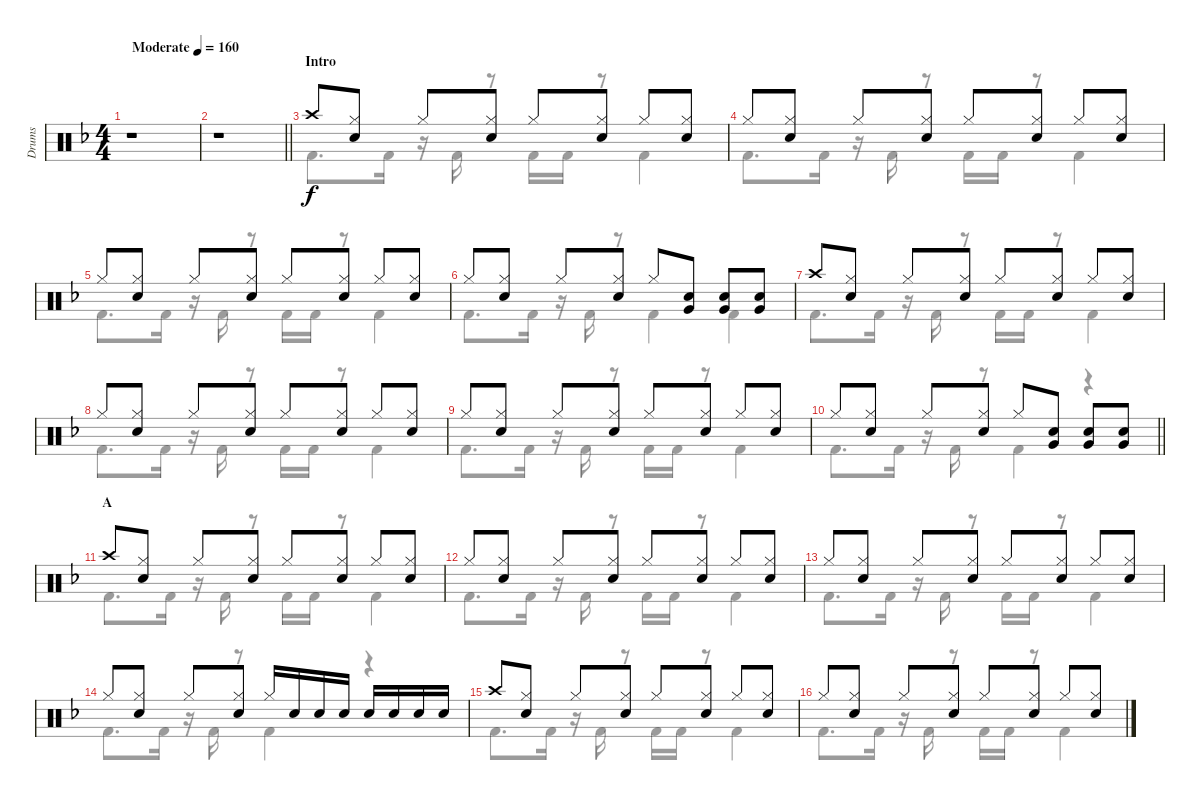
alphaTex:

\track ("Drums" "Drums") {instrument percussion}
\staff {score}
\articulation defaults
\voice
\ts (4 4)
\tempo (160 "Moderate")
\clef neutral
\ks f
r.1{dy f} |
\barLineRight lightlight
r.1 |
\section ("" "Intro")
"Crash high (hit)".8 ("Hi-Hat (closed)" "Snare (hit) 2").8 "Hi-Hat (closed)".8 ("Hi-Hat (closed)" "Snare (hit) 2").8 "Hi-Hat (closed)".8 ("Hi-Hat (closed)" "Snare (hit) 2").8 "Hi-Hat (closed)".8 ("Hi-Hat (closed)" "Snare (hit) 2").8 |
"Hi-Hat (closed)".8 ("Hi-Hat (closed)" "Snare (hit) 2").8 "Hi-Hat (closed)".8 ("Hi-Hat (closed)" "Snare (hit) 2").8 "Hi-Hat (closed)".8 ("Hi-Hat (closed)" "Snare (hit) 2").8 "Hi-Hat (closed)".8 ("Hi-Hat (closed)" "Snare (hit) 2").8 |
"Hi-Hat (closed)".8 ("Hi-Hat (closed)" "Snare (hit) 2").8 "Hi-Hat (closed)".8 ("Hi-Hat (closed)" "Snare (hit) 2").8 "Hi-Hat (closed)".8 ("Hi-Hat (closed)" "Snare (hit) 2").8 "Hi-Hat (closed)".8 ("Hi-Hat (closed)" "Snare (hit) 2").8 |
"Hi-Hat (closed)".8 ("Hi-Hat (closed)" "Snare (hit) 2").8 "Hi-Hat (closed)".8 ("Hi-Hat (closed)" "Snare (hit) 2").8 "Hi-Hat (closed)".8 ("Snare (hit) 2" "Very Low Tom (hit)").8 ("Snare (hit) 2" "Very Low Tom (hit)").8 ("Snare (hit) 2" "Very Low Tom (hit)").8 |
"Crash high (hit)".8 ("Hi-Hat (closed)" "Snare (hit) 2").8 "Hi-Hat (closed)".8 ("Hi-Hat (closed)" "Snare (hit) 2").8 "Hi-Hat (closed)".8 ("Hi-Hat (closed)" "Snare (hit) 2").8 "Hi-Hat (closed)".8 ("Hi-Hat (closed)" "Snare (hit) 2").8 |
"Hi-Hat (closed)".8 ("Hi-Hat (closed)" "Snare (hit) 2").8 "Hi-Hat (closed)".8 ("Hi-Hat (closed)" "Snare (hit) 2").8 "Hi-Hat (closed)".8 ("Hi-Hat (closed)" "Snare (hit) 2").8 "Hi-Hat (closed)".8 ("Hi-Hat (closed)" "Snare (hit) 2").8 |
"Hi-Hat (closed)".8 ("Hi-Hat (closed)" "Snare (hit) 2").8 "Hi-Hat (closed)".8 ("Hi-Hat (closed)" "Snare (hit) 2").8 "Hi-Hat (closed)".8 ("Hi-Hat (closed)" "Snare (hit) 2").8 "Hi-Hat (closed)".8 ("Hi-Hat (closed)" "Snare (hit) 2").8 |
\barLineRight lightlight "Hi-Hat (closed)".8
("Hi-Hat (closed)" "Snare (hit) 2").8 "Hi-Hat (closed)".8 ("Hi-Hat (closed)" "Snare (hit) 2").8 "Hi-Hat (closed)".8 ("Snare (hit) 2" "Very Low Tom (hit)").8 ("Snare (hit) 2" "Very Low Tom (hit)").8 ("Snare (hit) 2" "Very Low Tom (hit)").8 |
\section ("" "A")
"Crash high (hit)".8 ("Hi-Hat (closed)" "Snare (hit) 2").8 "Hi-Hat (closed)".8 ("Hi-Hat (closed)" "Snare (hit) 2").8 "Hi-Hat (closed)".8 ("Hi-Hat (closed)" "Snare (hit) 2").8 "Hi-Hat (closed)".8 ("Hi-Hat (closed)" "Snare (hit) 2").8 |
"Hi-Hat (closed)".8 ("Hi-Hat (closed)" "Snare (hit) 2").8 "Hi-Hat (closed)".8 ("Hi-Hat (closed)" "Snare (hit) 2").8 "Hi-Hat (closed)".8 ("Hi-Hat (closed)" "Snare (hit) 2").8 "Hi-Hat (closed)".8 ("Hi-Hat (closed)" "Snare (hit) 2").8 |
"Hi-Hat (closed)".8 ("Hi-Hat (closed)" "Snare (hit) 2").8 "Hi-Hat (closed)".8 ("Hi-Hat (closed)" "Snare (hit) 2").8 "Hi-Hat (closed)".8 ("Hi-Hat (closed)" "Snare (hit) 2").8 "Hi-Hat (closed)".8 ("Hi-Hat (closed)" "Snare (hit) 2").8 |
"Hi-Hat (closed)".8 ("Hi-Hat (closed)" "Snare (hit) 2").8 "Hi-Hat (closed)".8 ("Hi-Hat (closed)" "Snare (hit) 2").8 "Hi-Hat (closed)".16 "Snare (hit) 2".16 "Snare (hit) 2".16 "Snare (hit) 2".16 "Snare (hit) 2".16 "Snare (hit) 2".16 "Snare (hit) 2".16 "Snare (hit) 2".16 |
"Crash high (hit)".8 ("Hi-Hat (closed)" "Snare (hit) 2").8 "Hi-Hat (closed)".8 ("Hi-Hat (closed)" "Snare (hit) 2").8 "Hi-Hat (closed)".8 ("Hi-Hat (closed)" "Snare (hit) 2").8 "Hi-Hat (closed)".8 ("Hi-Hat (closed)" "Snare (hit) 2").8 |
"Hi-Hat (closed)".8 ("Hi-Hat (closed)" "Snare (hit) 2").8 "Hi-Hat (closed)".8 ("Hi-Hat (closed)" "Snare (hit) 2").8 "Hi-Hat (closed)".8 ("Hi-Hat (closed)" "Snare (hit) 2").8 "Hi-Hat (closed)".8 ("Hi-Hat (closed)" "Snare (hit) 2").8
\voice
\clef neutral
\ottava regular
\simile none
\ks f
r.1{dy f} |
\barLineRight lightlight
r.1 |
"Kick (hit) 2".8{d} "Kick (hit) 2".16 r.16 "Kick (hit) 2".16 r.8 "Kick (hit) 2".16 "Kick (hit) 2".16 r.8 "Kick (hit) 2".4 |
"Kick (hit) 2".8{d} "Kick (hit) 2".16 r.16 "Kick (hit) 2".16 r.8 "Kick (hit) 2".16 "Kick (hit) 2".16 r.8 "Kick (hit) 2".4 |
"Kick (hit) 2".8{d} "Kick (hit) 2".16 r.16 "Kick (hit) 2".16 r.8 "Kick (hit) 2".16 "Kick (hit) 2".16 r.8 "Kick (hit) 2".4 |
"Kick (hit) 2".8{d} "Kick (hit) 2".16 r.16 "Kick (hit) 2".16 r.8 "Kick (hit) 2".4 "Kick (hit) 2".4 |
"Kick (hit) 2".8{d} "Kick (hit) 2".16 r.16 "Kick (hit) 2".16 r.8 "Kick (hit) 2".16 "Kick (hit) 2".16 r.8 "Kick (hit) 2".4 |
"Kick (hit) 2".8{d} "Kick (hit) 2".16 r.16 "Kick (hit) 2".16 r.8 "Kick (hit) 2".16 "Kick (hit) 2".16 r.8 "Kick (hit) 2".4 |
"Kick (hit) 2".8{d} "Kick (hit) 2".16 r.16 "Kick (hit) 2".16 r.8 "Kick (hit) 2".16 "Kick (hit) 2".16 r.8 "Kick (hit) 2".4 |
\barLineRight lightlight "Kick (hit) 2".8{d} "Kick (hit) 2".16
r.16 "Kick (hit) 2".16 r.8 "Kick (hit) 2".4 r.4 |
"Kick (hit) 2".8{d} "Kick (hit) 2".16 r.16 "Kick (hit) 2".16 r.8 "Kick (hit) 2".16 "Kick (hit) 2".16 r.8 "Kick (hit) 2".4 |
"Kick (hit) 2".8{d} "Kick (hit) 2".16 r.16 "Kick (hit) 2".16 r.8 "Kick (hit) 2".16 "Kick (hit) 2".16 r.8 "Kick (hit) 2".4 |
"Kick (hit) 2".8{d} "Kick (hit) 2".16 r.16 "Kick (hit) 2".16 r.8 "Kick (hit) 2".16 "Kick (hit) 2".16 r.8 "Kick (hit) 2".4 |
"Kick (hit) 2".8{d} "Kick (hit) 2".16 r.16 "Kick (hit) 2".16 r.8 "Kick (hit) 2".4 r.4 |
"Kick (hit) 2".8{d} "Kick (hit) 2".16 r.16 "Kick (hit) 2".16 r.8 "Kick (hit) 2".16 "Kick (hit) 2".16 r.8 "Kick (hit) 2".4 |
"Kick (hit) 2".8{d} "Kick (hit) 2".16 r.16 "Kick (hit) 2".16 r.8 "Kick (hit) 2".16 "Kick (hit) 2".16 r.8 "Kick (hit) 2".4
